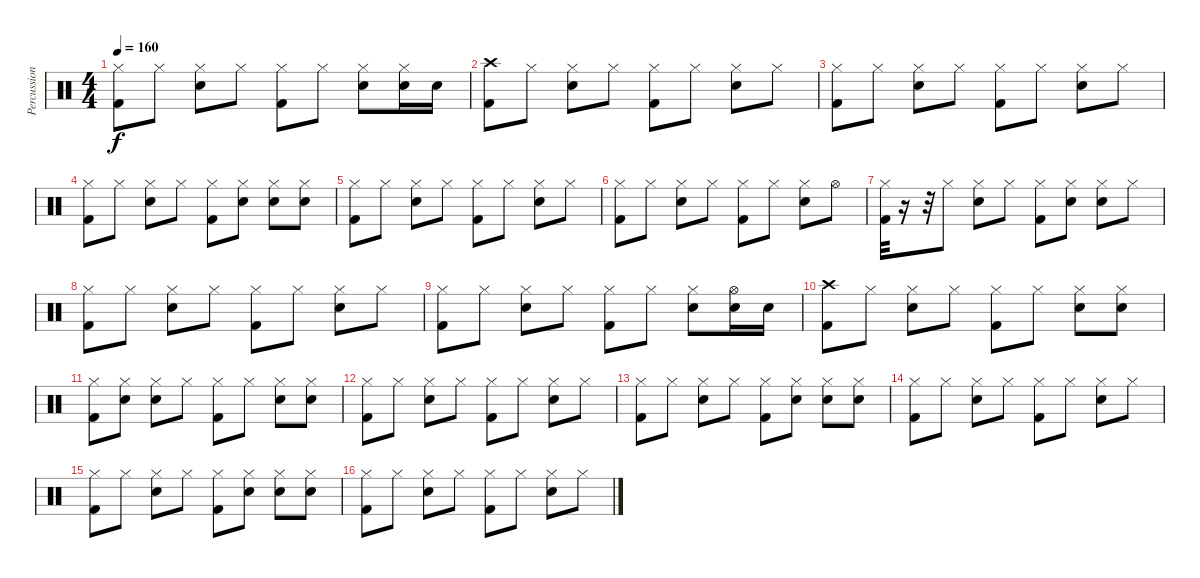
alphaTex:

\track ("Percussions" "Percussion") {instrument percussion}
\staff {score}
\articulation defaults
\ts (4 4)
\tempo 160
\clef neutral
\ks c
("Hi-Hat (closed)" "Kick (hit) 2").8{dy f} "Hi-Hat (closed)".8 ("Hi-Hat (closed)" "Snare (hit) 2").8 "Hi-Hat (closed)".8 ("Hi-Hat (closed)" "Kick (hit) 2").8 "Hi-Hat (closed)".8 ("Snare (hit) 2" "Hi-Hat (closed)").8 ("Hi-Hat (closed)" "Snare (hit) 2").16 "Snare (hit) 2".16 |
("Crash high (hit)" "Kick (hit) 2").8 "Hi-Hat (closed)".8 ("Hi-Hat (closed)" "Snare (hit) 2").8 "Hi-Hat (closed)".8 ("Hi-Hat (closed)" "Kick (hit) 2").8 "Hi-Hat (closed)".8 ("Hi-Hat (closed)" "Snare (hit) 2").8 "Hi-Hat (closed)".8 |
("Hi-Hat (closed)" "Kick (hit) 2").8 "Hi-Hat (closed)".8 ("Hi-Hat (closed)" "Snare (hit) 2").8 "Hi-Hat (closed)".8 ("Hi-Hat (closed)" "Kick (hit) 2").8 "Hi-Hat (closed)".8 ("Hi-Hat (closed)" "Snare (hit) 2").8 "Hi-Hat (closed)".8 |
("Hi-Hat (closed)" "Kick (hit) 2").8 "Hi-Hat (closed)".8 ("Hi-Hat (closed)" "Snare (hit) 2").8 "Hi-Hat (closed)".8 ("Hi-Hat (closed)" "Kick (hit) 2").8 ("Hi-Hat (closed)" "Snare (hit) 2").8 ("Hi-Hat (closed)" "Snare (hit) 2").8 ("Hi-Hat (closed)" "Snare (hit) 2").8 |
("Hi-Hat (closed)" "Kick (hit) 2").8 "Hi-Hat (closed)".8 ("Hi-Hat (closed)" "Snare (hit) 2").8 "Hi-Hat (closed)".8 ("Hi-Hat (closed)" "Kick (hit) 2").8 "Hi-Hat (closed)".8 ("Hi-Hat (closed)" "Snare (hit) 2").8 "Hi-Hat (closed)".8 |
("Hi-Hat (closed)" "Kick (hit) 2").8 "Hi-Hat (closed)".8 ("Hi-Hat (closed)" "Snare (hit) 2").8 "Hi-Hat (closed)".8 ("Hi-Hat (closed)" "Kick (hit) 2").8 "Hi-Hat (closed)".8 ("Hi-Hat (closed)" "Snare (hit) 2").8 "Hi-Hat (open)".8 |
("Hi-Hat (closed)" "Kick (hit) 2").32 r.16 r.32 "Hi-Hat (closed)".8 ("Hi-Hat (closed)" "Snare (hit) 2").8 "Hi-Hat (closed)".8 ("Hi-Hat (closed)" "Kick (hit) 2").8 ("Hi-Hat (closed)" "Snare (hit) 2").8 ("Hi-Hat (closed)" "Snare (hit) 2").8 "Hi-Hat (closed)".8 |
("Hi-Hat (closed)" "Kick (hit) 2").8 "Hi-Hat (closed)".8 ("Hi-Hat (closed)" "Snare (hit) 2").8 "Hi-Hat (closed)".8 ("Hi-Hat (closed)" "Kick (hit) 2").8 "Hi-Hat (closed)".8 ("Hi-Hat (closed)" "Snare (hit) 2").8 "Hi-Hat (closed)".8 |
("Hi-Hat (closed)" "Kick (hit) 2").8 "Hi-Hat (closed)".8 ("Hi-Hat (closed)" "Snare (hit) 2").8 "Hi-Hat (closed)".8 ("Kick (hit) 2" "Hi-Hat (closed)").8 "Hi-Hat (closed)".8 ("Hi-Hat (closed)" "Snare (hit) 2").8 ("Hi-Hat (open)" "Snare (hit) 2").16 "Snare (hit) 2".16 |
("Crash high (hit)" "Kick (hit) 2").8 "Hi-Hat (closed)".8 ("Hi-Hat (closed)" "Snare (hit) 2").8 "Hi-Hat (closed)".8 ("Hi-Hat (closed)" "Kick (hit) 2").8 "Hi-Hat (closed)".8 ("Hi-Hat (closed)" "Snare (hit) 2").8 ("Snare (hit) 2" "Hi-Hat (closed)").8 |
("Hi-Hat (closed)" "Kick (hit) 2").8 ("Hi-Hat (closed)" "Snare (hit) 2").8 ("Hi-Hat (closed)" "Snare (hit) 2").8 "Hi-Hat (closed)".8 ("Hi-Hat (closed)" "Kick (hit) 2").8 "Hi-Hat (closed)".8 ("Hi-Hat (closed)" "Snare (hit) 2").8 ("Hi-Hat (closed)" "Snare (hit) 2").8 |
("Hi-Hat (closed)" "Kick (hit) 2").8 "Hi-Hat (closed)".8 ("Hi-Hat (closed)" "Snare (hit) 2").8 "Hi-Hat (closed)".8 ("Hi-Hat (closed)" "Kick (hit) 2").8 "Hi-Hat (closed)".8 ("Hi-Hat (closed)" "Snare (hit) 2").8 "Hi-Hat (closed)".8 |
("Hi-Hat (closed)" "Kick (hit) 2").8 "Hi-Hat (closed)".8 ("Hi-Hat (closed)" "Snare (hit) 2").8 "Hi-Hat (closed)".8 ("Hi-Hat (closed)" "Kick (hit) 2").8 ("Hi-Hat (closed)" "Snare (hit) 2").8 ("Hi-Hat (closed)" "Snare (hit) 2").8 ("Hi-Hat (closed)" "Snare (hit) 2").8 |
("Hi-Hat (closed)" "Kick (hit) 2").8 "Hi-Hat (closed)".8 ("Hi-Hat (closed)" "Snare (hit) 2").8 "Hi-Hat (closed)".8 ("Hi-Hat (closed)" "Kick (hit) 2").8 "Hi-Hat (closed)".8 ("Hi-Hat (closed)" "Snare (hit) 2").8 "Hi-Hat (closed)".8 |
("Hi-Hat (closed)" "Kick (hit) 2").8 "Hi-Hat (closed)".8 ("Hi-Hat (closed)" "Snare (hit) 2").8 "Hi-Hat (closed)".8 ("Hi-Hat (closed)" "Kick (hit) 2").8 ("Hi-Hat (closed)" "Snare (hit) 2").8 ("Snare (hit) 2" "Hi-Hat (closed)").8 ("Snare (hit) 2" "Hi-Hat (closed)").8 |
("Kick (hit) 2" "Hi-Hat (closed)").8 "Hi-Hat (closed)".8 ("Snare (hit) 2" "Hi-Hat (closed)").8 "Hi-Hat (closed)".8 ("Kick (hit) 2" "Hi-Hat (closed)").8 "Hi-Hat (closed)".8 ("Snare (hit) 2" "Hi-Hat (closed)").8 "Hi-Hat (closed)".8
